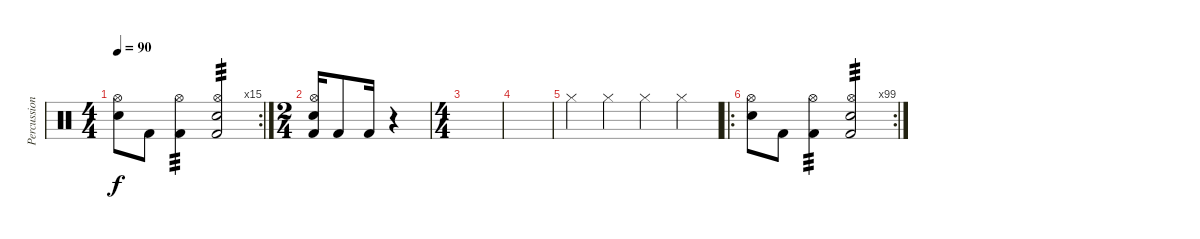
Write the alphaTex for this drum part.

\track ("Percussion" "Percussion") {instrument percussion}
\staff {score}
\articulation defaults
\rc 15
\ts (4 4)
\tempo 90
\clef neutral
\ks c
("Electric Snare (hit)" "Hi-Hat (open)").8{dy f} "Kick (hit) 2".8 ("Kick (hit) 2" "Hi-Hat (open)").4{tp 3} ("Kick (hit) 2" "Electric Snare (hit)" "Hi-Hat (open)").2{tp 3} |
\ts (2 4)
("Kick (hit) 2" "Electric Snare (hit)" "Hi-Hat (open)").16 "Kick (hit) 2".8 "Kick (hit) 2".16 r.4 |
\ts (4 4)
|
|
"Hi-Hat (closed)".4 "Hi-Hat (closed)".4 "Hi-Hat (closed)".4 "Hi-Hat (closed)".4 |
\ro
\rc 99
("Electric Snare (hit)" "Hi-Hat (open)").8 "Kick (hit) 2".8 ("Kick (hit) 2" "Hi-Hat (open)").4{tp 3} ("Kick (hit) 2" "Electric Snare (hit)" "Hi-Hat (open)").2{tp 3}
